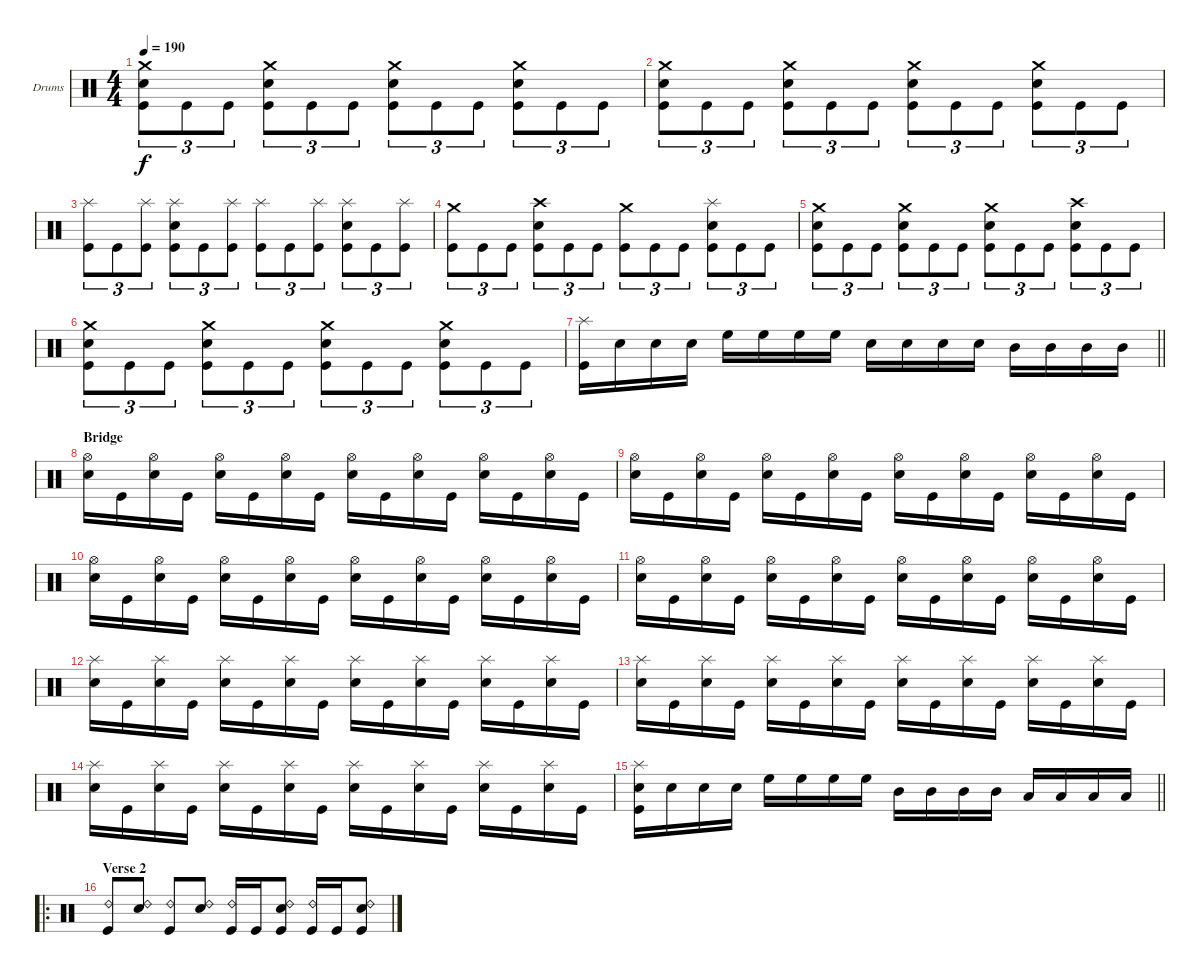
\bracketExtendMode groupsimilarinstruments
\firstSystemTrackNameOrientation horizontal
\otherSystemsTrackNameOrientation horizontal
\track ("Drumkit" "Drums") {instrument percussion}
\staff {score}
\articulation defaults
\ts (4 4)
\tempo 190
\clef neutral
\ks c
("Kick (hit)" "Snare (hit) 2" "Crash medium (hit)").8{tu (3 2) dy f} "Kick (hit)".8{tu (3 2)} "Kick (hit)".8{tu (3 2)} ("Kick (hit)" "Snare (hit) 2" "Crash medium (hit)").8{tu (3 2)} "Kick (hit)".8{tu (3 2)} "Kick (hit)".8{tu (3 2)} ("Kick (hit)" "Snare (hit) 2" "Crash medium (hit)").8{tu (3 2)} "Kick (hit)".8{tu (3 2)} "Kick (hit)".8{tu (3 2)} ("Kick (hit)" "Snare (hit) 2" "Crash medium (hit)").8{tu (3 2)} "Kick (hit)".8{tu (3 2)} "Kick (hit)".8{tu (3 2)} |
("Kick (hit)" "Snare (hit) 2" "Crash medium (hit)").8{tu (3 2)} "Kick (hit)".8{tu (3 2)} "Kick (hit)".8{tu (3 2)} ("Kick (hit)" "Snare (hit) 2" "Crash medium (hit)").8{tu (3 2)} "Kick (hit)".8{tu (3 2)} "Kick (hit)".8{tu (3 2)} ("Kick (hit)" "Snare (hit) 2" "Crash medium (hit)").8{tu (3 2)} "Kick (hit)".8{tu (3 2)} "Kick (hit)".8{tu (3 2)} ("Kick (hit)" "Snare (hit) 2" "Crash medium (hit)").8{tu (3 2)} "Kick (hit)".8{tu (3 2)} "Kick (hit)".8{tu (3 2)} |
("Kick (hit)" "Splash (hit)").8{tu (3 2)} "Kick (hit)".8{tu (3 2)} ("Kick (hit)" "Splash (hit)").8{tu (3 2)} ("Kick (hit)" "Snare (hit) 2" "Splash (hit)").8{tu (3 2)} "Kick (hit)".8{tu (3 2)} ("Kick (hit)" "Splash (hit)").8{tu (3 2)} ("Kick (hit)" "Splash (hit)").8{tu (3 2)} "Kick (hit)".8{tu (3 2)} ("Kick (hit)" "Splash (hit)").8{tu (3 2)} ("Kick (hit)" "Snare (hit) 2" "Splash (hit)").8{tu (3 2)} "Kick (hit)".8{tu (3 2)} ("Kick (hit)" "Splash (hit)").8{tu (3 2)} |
("Kick (hit)" "Crash medium (hit)").8{tu (3 2)} "Kick (hit)".8{tu (3 2)} "Kick (hit)".8{tu (3 2)} ("Kick (hit)" "Snare (hit) 2" "Crash high (hit)").8{tu (3 2)} "Kick (hit)".8{tu (3 2)} "Kick (hit)".8{tu (3 2)} ("Kick (hit)" "Crash medium (hit)").8{tu (3 2)} "Kick (hit)".8{tu (3 2)} "Kick (hit)".8{tu (3 2)} ("Kick (hit)" "Snare (hit) 2" "Splash (hit)").8{tu (3 2)} "Kick (hit)".8{tu (3 2)} "Kick (hit)".8{tu (3 2)} |
("Kick (hit)" "Snare (hit) 2" "Crash medium (hit)").8{tu (3 2)} "Kick (hit)".8{tu (3 2)} "Kick (hit)".8{tu (3 2)} ("Kick (hit)" "Snare (hit) 2" "Crash medium (hit)").8{tu (3 2)} "Kick (hit)".8{tu (3 2)} "Kick (hit)".8{tu (3 2)} ("Kick (hit)" "Snare (hit) 2" "Crash medium (hit)").8{tu (3 2)} "Kick (hit)".8{tu (3 2)} "Kick (hit)".8{tu (3 2)} ("Kick (hit)" "Snare (hit) 2" "Crash high (hit)").8{tu (3 2)} "Kick (hit)".8{tu (3 2)} "Kick (hit)".8{tu (3 2)} |
("Kick (hit)" "Snare (hit) 2" "Crash medium (hit)").8{tu (3 2)} "Kick (hit)".8{tu (3 2)} "Kick (hit)".8{tu (3 2)} ("Kick (hit)" "Snare (hit) 2" "Crash medium (hit)").8{tu (3 2)} "Kick (hit)".8{tu (3 2)} "Kick (hit)".8{tu (3 2)} ("Kick (hit)" "Snare (hit) 2" "Crash medium (hit)").8{tu (3 2)} "Kick (hit)".8{tu (3 2)} "Kick (hit)".8{tu (3 2)} ("Kick (hit)" "Snare (hit) 2" "Crash medium (hit)").8{tu (3 2)} "Kick (hit)".8{tu (3 2)} "Kick (hit)".8{tu (3 2)} |
\barLineRight lightlight
("Kick (hit)" "Splash (hit)").16 "Snare (hit) 2".16 "Snare (hit) 2".16 "Snare (hit) 2".16 "High Floor Tom (hit)".16 "High Floor Tom (hit)".16 "High Floor Tom (hit)".16 "High Floor Tom (hit)".16 "Snare (hit) 2".16 "Snare (hit) 2".16 "Snare (hit) 2".16 "Snare (hit) 2".16 "Mid Tom (hit)".16 "Mid Tom (hit)".16 "Mid Tom (hit)".16 "Mid Tom (hit)".16 |
\section ("" "Bridge")
("Snare (hit) 2" "Hi-Hat (open)").16 "Kick (hit)".16 ("Snare (hit) 2" "Hi-Hat (open)").16 "Kick (hit)".16 ("Snare (hit) 2" "Hi-Hat (open)").16 "Kick (hit)".16 ("Snare (hit) 2" "Hi-Hat (open)").16 "Kick (hit)".16 ("Snare (hit) 2" "Hi-Hat (open)").16 "Kick (hit)".16 ("Snare (hit) 2" "Hi-Hat (open)").16 "Kick (hit)".16 ("Snare (hit) 2" "Hi-Hat (open)").16 "Kick (hit)".16 ("Snare (hit) 2" "Hi-Hat (open)").16 "Kick (hit)".16 |
("Snare (hit) 2" "Hi-Hat (open)").16 "Kick (hit)".16 ("Snare (hit) 2" "Hi-Hat (open)").16 "Kick (hit)".16 ("Snare (hit) 2" "Hi-Hat (open)").16 "Kick (hit)".16 ("Snare (hit) 2" "Hi-Hat (open)").16 "Kick (hit)".16 ("Snare (hit) 2" "Hi-Hat (open)").16 "Kick (hit)".16 ("Snare (hit) 2" "Hi-Hat (open)").16 "Kick (hit)".16 ("Snare (hit) 2" "Hi-Hat (open)").16 "Kick (hit)".16 ("Snare (hit) 2" "Hi-Hat (open)").16 "Kick (hit)".16 |
("Snare (hit) 2" "Hi-Hat (open)").16 "Kick (hit)".16 ("Snare (hit) 2" "Hi-Hat (open)").16 "Kick (hit)".16 ("Snare (hit) 2" "Hi-Hat (open)").16 "Kick (hit)".16 ("Snare (hit) 2" "Hi-Hat (open)").16 "Kick (hit)".16 ("Snare (hit) 2" "Hi-Hat (open)").16 "Kick (hit)".16 ("Snare (hit) 2" "Hi-Hat (open)").16 "Kick (hit)".16 ("Snare (hit) 2" "Hi-Hat (open)").16 "Kick (hit)".16 ("Snare (hit) 2" "Hi-Hat (open)").16 "Kick (hit)".16 |
("Snare (hit) 2" "Hi-Hat (open)").16 "Kick (hit)".16 ("Snare (hit) 2" "Hi-Hat (open)").16 "Kick (hit)".16 ("Snare (hit) 2" "Hi-Hat (open)").16 "Kick (hit)".16 ("Snare (hit) 2" "Hi-Hat (open)").16 "Kick (hit)".16 ("Snare (hit) 2" "Hi-Hat (open)").16 "Kick (hit)".16 ("Snare (hit) 2" "Hi-Hat (open)").16 "Kick (hit)".16 ("Snare (hit) 2" "Hi-Hat (open)").16 "Kick (hit)".16 ("Snare (hit) 2" "Hi-Hat (open)").16 "Kick (hit)".16 |
("Snare (hit) 2" "Splash (hit)").16 "Kick (hit)".16 ("Snare (hit) 2" "Splash (hit)").16 "Kick (hit)".16 ("Snare (hit) 2" "Splash (hit)").16 "Kick (hit)".16 ("Snare (hit) 2" "Splash (hit)").16 "Kick (hit)".16 ("Snare (hit) 2" "Splash (hit)").16 "Kick (hit)".16 ("Snare (hit) 2" "Splash (hit)").16 "Kick (hit)".16 ("Snare (hit) 2" "Splash (hit)").16 "Kick (hit)".16 ("Snare (hit) 2" "Splash (hit)").16 "Kick (hit)".16 |
("Snare (hit) 2" "Splash (hit)").16 "Kick (hit)".16 ("Snare (hit) 2" "Splash (hit)").16 "Kick (hit)".16 ("Snare (hit) 2" "Splash (hit)").16 "Kick (hit)".16 ("Snare (hit) 2" "Splash (hit)").16 "Kick (hit)".16 ("Snare (hit) 2" "Splash (hit)").16 "Kick (hit)".16 ("Snare (hit) 2" "Splash (hit)").16 "Kick (hit)".16 ("Snare (hit) 2" "Splash (hit)").16 "Kick (hit)".16 ("Snare (hit) 2" "Splash (hit)").16 "Kick (hit)".16 |
("Snare (hit) 2" "Splash (hit)").16 "Kick (hit)".16 ("Snare (hit) 2" "Splash (hit)").16 "Kick (hit)".16 ("Snare (hit) 2" "Splash (hit)").16 "Kick (hit)".16 ("Snare (hit) 2" "Splash (hit)").16 "Kick (hit)".16 ("Snare (hit) 2" "Splash (hit)").16 "Kick (hit)".16 ("Snare (hit) 2" "Splash (hit)").16 "Kick (hit)".16 ("Snare (hit) 2" "Splash (hit)").16 "Kick (hit)".16 ("Snare (hit) 2" "Splash (hit)").16 "Kick (hit)".16 |
\barLineRight lightlight
("Kick (hit)" "Snare (hit) 2" "Splash (hit)").16 "Snare (hit) 2".16 "Snare (hit) 2".16 "Snare (hit) 2".16 "High Floor Tom (hit)".16 "High Floor Tom (hit)".16 "High Floor Tom (hit)".16 "High Floor Tom (hit)".16 "Mid Tom (hit)".16 "Mid Tom (hit)".16 "Mid Tom (hit)".16 "Mid Tom (hit)".16 "Low Tom (hit)".16 "Low Tom (hit)".16 "Low Tom (hit)".16 "Low Tom (hit)".16 |
\ro
\section ("" "Verse 2")
("Kick (hit)" "Ride (bell) 2").8 ("Snare (hit) 2" "Ride (bell) 2").8 ("Kick (hit)" "Ride (bell) 2").8 ("Snare (hit) 2" "Ride (bell) 2").8 ("Kick (hit)" "Ride (bell) 2").16 "Kick (hit)".16 ("Kick (hit)" "Snare (hit) 2" "Ride (bell) 2").8 ("Kick (hit)" "Ride (bell) 2").16 "Kick (hit)".16 ("Kick (hit)" "Snare (hit) 2" "Ride (bell) 2").8
